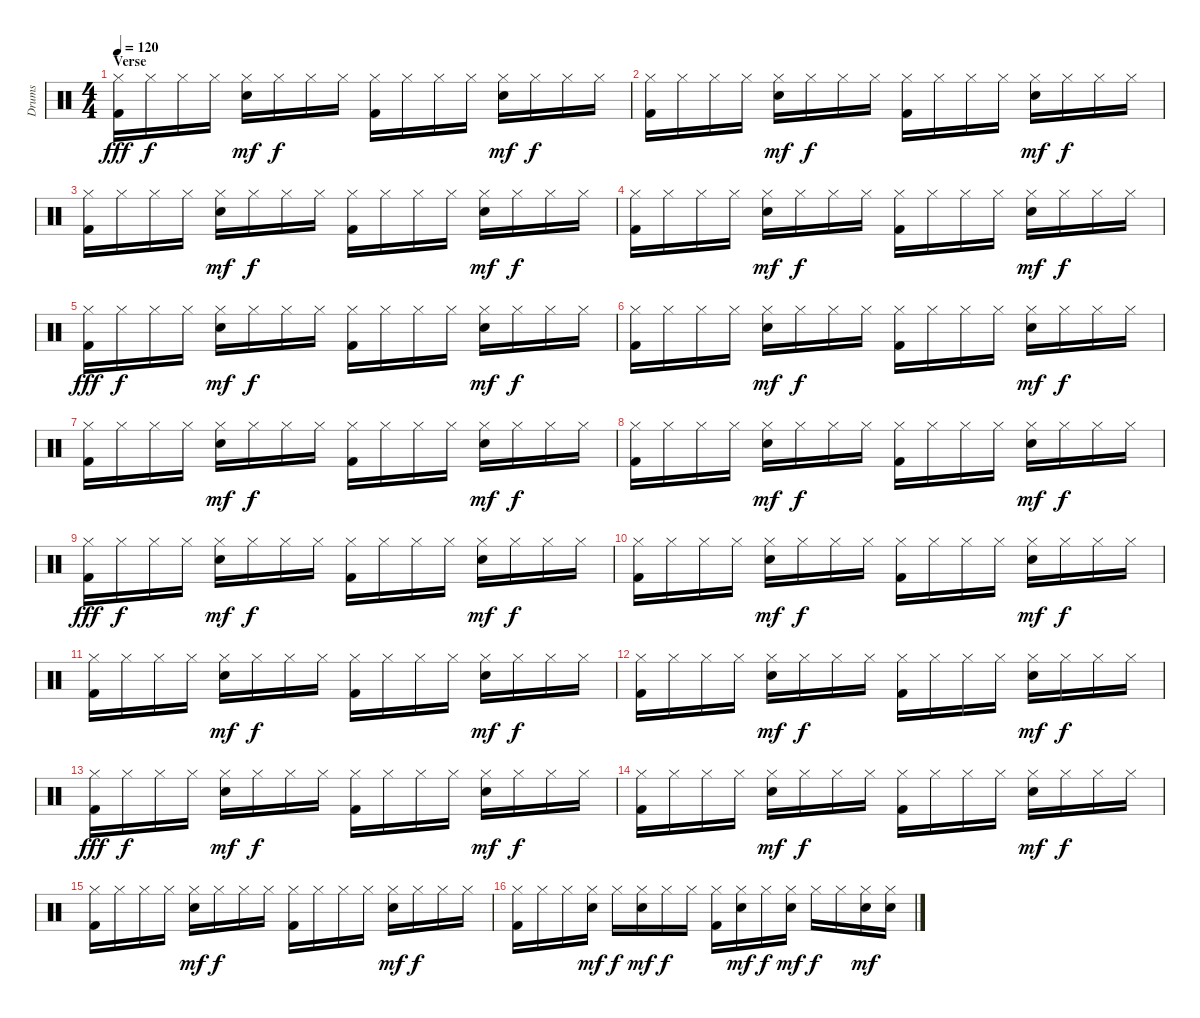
\track ("Drums" "Drums") {instrument percussion}
\staff {score}
\articulation defaults
\ts (4 4)
\section ("" "Verse")
\tempo 120
\clef neutral
\ks c
("Hi-Hat (closed)" "Kick (hit) 2").16{dy fff} "Hi-Hat (closed)".16{dy f} "Hi-Hat (closed)".16 "Hi-Hat (closed)".16 ("Hi-Hat (closed)" "Electric Snare (hit)").16{dy mf} "Hi-Hat (closed)".16{dy f} "Hi-Hat (closed)".16 "Hi-Hat (closed)".16 ("Hi-Hat (closed)" "Kick (hit) 2").16 "Hi-Hat (closed)".16 "Hi-Hat (closed)".16 "Hi-Hat (closed)".16 ("Hi-Hat (closed)" "Electric Snare (hit)").16{dy mf} "Hi-Hat (closed)".16{dy f} "Hi-Hat (closed)".16 "Hi-Hat (closed)".16 |
("Hi-Hat (closed)" "Kick (hit) 2").16 "Hi-Hat (closed)".16 "Hi-Hat (closed)".16 "Hi-Hat (closed)".16 ("Hi-Hat (closed)" "Electric Snare (hit)").16{dy mf} "Hi-Hat (closed)".16{dy f} "Hi-Hat (closed)".16 "Hi-Hat (closed)".16 ("Hi-Hat (closed)" "Kick (hit) 2").16 "Hi-Hat (closed)".16 "Hi-Hat (closed)".16 "Hi-Hat (closed)".16 ("Hi-Hat (closed)" "Electric Snare (hit)").16{dy mf} "Hi-Hat (closed)".16{dy f} "Hi-Hat (closed)".16 "Hi-Hat (closed)".16 |
("Hi-Hat (closed)" "Kick (hit) 2").16 "Hi-Hat (closed)".16 "Hi-Hat (closed)".16 "Hi-Hat (closed)".16 ("Hi-Hat (closed)" "Electric Snare (hit)").16{dy mf} "Hi-Hat (closed)".16{dy f} "Hi-Hat (closed)".16 "Hi-Hat (closed)".16 ("Hi-Hat (closed)" "Kick (hit) 2").16 "Hi-Hat (closed)".16 "Hi-Hat (closed)".16 "Hi-Hat (closed)".16 ("Hi-Hat (closed)" "Electric Snare (hit)").16{dy mf} "Hi-Hat (closed)".16{dy f} "Hi-Hat (closed)".16 "Hi-Hat (closed)".16 |
("Hi-Hat (closed)" "Kick (hit) 2").16 "Hi-Hat (closed)".16 "Hi-Hat (closed)".16 "Hi-Hat (closed)".16 ("Hi-Hat (closed)" "Electric Snare (hit)").16{dy mf} "Hi-Hat (closed)".16{dy f} "Hi-Hat (closed)".16 "Hi-Hat (closed)".16 ("Hi-Hat (closed)" "Kick (hit) 2").16 "Hi-Hat (closed)".16 "Hi-Hat (closed)".16 "Hi-Hat (closed)".16 ("Hi-Hat (closed)" "Electric Snare (hit)").16{dy mf} "Hi-Hat (closed)".16{dy f} "Hi-Hat (closed)".16 "Hi-Hat (closed)".16 |
("Hi-Hat (closed)" "Kick (hit) 2").16{dy fff} "Hi-Hat (closed)".16{dy f} "Hi-Hat (closed)".16 "Hi-Hat (closed)".16 ("Hi-Hat (closed)" "Electric Snare (hit)").16{dy mf} "Hi-Hat (closed)".16{dy f} "Hi-Hat (closed)".16 "Hi-Hat (closed)".16 ("Hi-Hat (closed)" "Kick (hit) 2").16 "Hi-Hat (closed)".16 "Hi-Hat (closed)".16 "Hi-Hat (closed)".16 ("Hi-Hat (closed)" "Electric Snare (hit)").16{dy mf} "Hi-Hat (closed)".16{dy f} "Hi-Hat (closed)".16 "Hi-Hat (closed)".16 |
("Hi-Hat (closed)" "Kick (hit) 2").16 "Hi-Hat (closed)".16 "Hi-Hat (closed)".16 "Hi-Hat (closed)".16 ("Hi-Hat (closed)" "Electric Snare (hit)").16{dy mf} "Hi-Hat (closed)".16{dy f} "Hi-Hat (closed)".16 "Hi-Hat (closed)".16 ("Hi-Hat (closed)" "Kick (hit) 2").16 "Hi-Hat (closed)".16 "Hi-Hat (closed)".16 "Hi-Hat (closed)".16 ("Hi-Hat (closed)" "Electric Snare (hit)").16{dy mf} "Hi-Hat (closed)".16{dy f} "Hi-Hat (closed)".16 "Hi-Hat (closed)".16 |
("Hi-Hat (closed)" "Kick (hit) 2").16 "Hi-Hat (closed)".16 "Hi-Hat (closed)".16 "Hi-Hat (closed)".16 ("Hi-Hat (closed)" "Electric Snare (hit)").16{dy mf} "Hi-Hat (closed)".16{dy f} "Hi-Hat (closed)".16 "Hi-Hat (closed)".16 ("Hi-Hat (closed)" "Kick (hit) 2").16 "Hi-Hat (closed)".16 "Hi-Hat (closed)".16 "Hi-Hat (closed)".16 ("Hi-Hat (closed)" "Electric Snare (hit)").16{dy mf} "Hi-Hat (closed)".16{dy f} "Hi-Hat (closed)".16 "Hi-Hat (closed)".16 |
("Hi-Hat (closed)" "Kick (hit) 2").16 "Hi-Hat (closed)".16 "Hi-Hat (closed)".16 "Hi-Hat (closed)".16 ("Hi-Hat (closed)" "Electric Snare (hit)").16{dy mf} "Hi-Hat (closed)".16{dy f} "Hi-Hat (closed)".16 "Hi-Hat (closed)".16 ("Hi-Hat (closed)" "Kick (hit) 2").16 "Hi-Hat (closed)".16 "Hi-Hat (closed)".16 "Hi-Hat (closed)".16 ("Hi-Hat (closed)" "Electric Snare (hit)").16{dy mf} "Hi-Hat (closed)".16{dy f} "Hi-Hat (closed)".16 "Hi-Hat (closed)".16 |
("Hi-Hat (closed)" "Kick (hit) 2").16{dy fff} "Hi-Hat (closed)".16{dy f} "Hi-Hat (closed)".16 "Hi-Hat (closed)".16 ("Hi-Hat (closed)" "Electric Snare (hit)").16{dy mf} "Hi-Hat (closed)".16{dy f} "Hi-Hat (closed)".16 "Hi-Hat (closed)".16 ("Hi-Hat (closed)" "Kick (hit) 2").16 "Hi-Hat (closed)".16 "Hi-Hat (closed)".16 "Hi-Hat (closed)".16 ("Hi-Hat (closed)" "Electric Snare (hit)").16{dy mf} "Hi-Hat (closed)".16{dy f} "Hi-Hat (closed)".16 "Hi-Hat (closed)".16 |
("Hi-Hat (closed)" "Kick (hit) 2").16 "Hi-Hat (closed)".16 "Hi-Hat (closed)".16 "Hi-Hat (closed)".16 ("Hi-Hat (closed)" "Electric Snare (hit)").16{dy mf} "Hi-Hat (closed)".16{dy f} "Hi-Hat (closed)".16 "Hi-Hat (closed)".16 ("Hi-Hat (closed)" "Kick (hit) 2").16 "Hi-Hat (closed)".16 "Hi-Hat (closed)".16 "Hi-Hat (closed)".16 ("Hi-Hat (closed)" "Electric Snare (hit)").16{dy mf} "Hi-Hat (closed)".16{dy f} "Hi-Hat (closed)".16 "Hi-Hat (closed)".16 |
("Hi-Hat (closed)" "Kick (hit) 2").16 "Hi-Hat (closed)".16 "Hi-Hat (closed)".16 "Hi-Hat (closed)".16 ("Hi-Hat (closed)" "Electric Snare (hit)").16{dy mf} "Hi-Hat (closed)".16{dy f} "Hi-Hat (closed)".16 "Hi-Hat (closed)".16 ("Hi-Hat (closed)" "Kick (hit) 2").16 "Hi-Hat (closed)".16 "Hi-Hat (closed)".16 "Hi-Hat (closed)".16 ("Hi-Hat (closed)" "Electric Snare (hit)").16{dy mf} "Hi-Hat (closed)".16{dy f} "Hi-Hat (closed)".16 "Hi-Hat (closed)".16 |
("Hi-Hat (closed)" "Kick (hit) 2").16 "Hi-Hat (closed)".16 "Hi-Hat (closed)".16 "Hi-Hat (closed)".16 ("Hi-Hat (closed)" "Electric Snare (hit)").16{dy mf} "Hi-Hat (closed)".16{dy f} "Hi-Hat (closed)".16 "Hi-Hat (closed)".16 ("Hi-Hat (closed)" "Kick (hit) 2").16 "Hi-Hat (closed)".16 "Hi-Hat (closed)".16 "Hi-Hat (closed)".16 ("Hi-Hat (closed)" "Electric Snare (hit)").16{dy mf} "Hi-Hat (closed)".16{dy f} "Hi-Hat (closed)".16 "Hi-Hat (closed)".16 |
("Hi-Hat (closed)" "Kick (hit) 2").16{dy fff} "Hi-Hat (closed)".16{dy f} "Hi-Hat (closed)".16 "Hi-Hat (closed)".16 ("Hi-Hat (closed)" "Electric Snare (hit)").16{dy mf} "Hi-Hat (closed)".16{dy f} "Hi-Hat (closed)".16 "Hi-Hat (closed)".16 ("Hi-Hat (closed)" "Kick (hit) 2").16 "Hi-Hat (closed)".16 "Hi-Hat (closed)".16 "Hi-Hat (closed)".16 ("Hi-Hat (closed)" "Electric Snare (hit)").16{dy mf} "Hi-Hat (closed)".16{dy f} "Hi-Hat (closed)".16 "Hi-Hat (closed)".16 |
("Hi-Hat (closed)" "Kick (hit) 2").16 "Hi-Hat (closed)".16 "Hi-Hat (closed)".16 "Hi-Hat (closed)".16 ("Hi-Hat (closed)" "Electric Snare (hit)").16{dy mf} "Hi-Hat (closed)".16{dy f} "Hi-Hat (closed)".16 "Hi-Hat (closed)".16 ("Hi-Hat (closed)" "Kick (hit) 2").16 "Hi-Hat (closed)".16 "Hi-Hat (closed)".16 "Hi-Hat (closed)".16 ("Hi-Hat (closed)" "Electric Snare (hit)").16{dy mf} "Hi-Hat (closed)".16{dy f} "Hi-Hat (closed)".16 "Hi-Hat (closed)".16 |
("Hi-Hat (closed)" "Kick (hit) 2").16 "Hi-Hat (closed)".16 "Hi-Hat (closed)".16 "Hi-Hat (closed)".16 ("Hi-Hat (closed)" "Electric Snare (hit)").16{dy mf} "Hi-Hat (closed)".16{dy f} "Hi-Hat (closed)".16 "Hi-Hat (closed)".16 ("Hi-Hat (closed)" "Kick (hit) 2").16 "Hi-Hat (closed)".16 "Hi-Hat (closed)".16 "Hi-Hat (closed)".16 ("Hi-Hat (closed)" "Electric Snare (hit)").16{dy mf} "Hi-Hat (closed)".16{dy f} "Hi-Hat (closed)".16 "Hi-Hat (closed)".16 |
("Hi-Hat (closed)" "Kick (hit) 2").16 "Hi-Hat (closed)".16 "Hi-Hat (closed)".16 ("Hi-Hat (closed)" "Electric Snare (hit)").16{dy mf} "Hi-Hat (closed)".16{dy f} ("Hi-Hat (closed)" "Electric Snare (hit)").16{dy mf} "Hi-Hat (closed)".16{dy f} "Hi-Hat (closed)".16 ("Hi-Hat (closed)" "Kick (hit) 2").16 ("Hi-Hat (closed)" "Electric Snare (hit)").16{dy mf} "Hi-Hat (closed)".16{dy f} ("Hi-Hat (closed)" "Electric Snare (hit)").16{dy mf} "Hi-Hat (closed)".16{dy f} "Hi-Hat (closed)".16 ("Hi-Hat (closed)" "Electric Snare (hit)").16{dy mf} ("Hi-Hat (closed)" "Electric Snare (hit)").16
